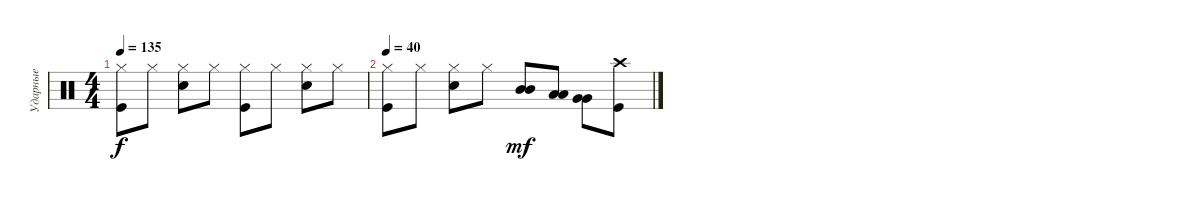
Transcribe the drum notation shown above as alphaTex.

\track ("Ударные" "Ударные") {instrument percussion}
\staff {score}
\articulation defaults
\ts (4 4)
\tempo 135
\clef neutral
\ks c
("Hi-Hat (closed)" "Kick (hit)").8{dy f} "Hi-Hat (closed)".8 ("Hi-Hat (closed)" "Snare (hit) 2").8 "Hi-Hat (closed)".8 ("Hi-Hat (closed)" "Kick (hit)").8 "Hi-Hat (closed)".8 ("Hi-Hat (closed)" "Snare (hit) 2").8 "Hi-Hat (closed)".8 |
\tempo 40
("Hi-Hat (closed)" "Kick (hit)").8 "Hi-Hat (closed)".8 ("Hi-Hat (closed)" "Snare (hit) 2").8 "Hi-Hat (closed)".8 ("Mid Tom (hit)" "Mid Tom (hit)").8{bd 120 dy mf} ("Low Tom (hit)" "Low Tom (hit)").8{bd 240} ("Very Low Tom (hit)" "Very Low Tom (hit)").8{bd 240} ("Kick (hit)" "Crash high (hit)").8
